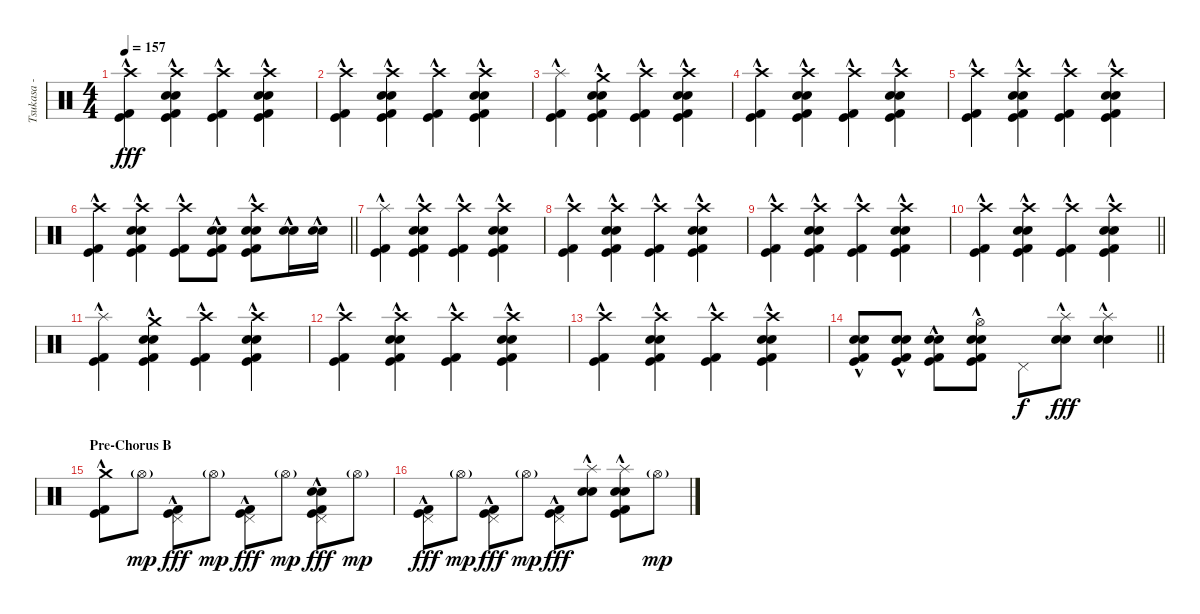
\track ("Tsukasa - Drums" "Tsukasa - ") {instrument percussion}
\staff {score}
\articulation defaults
\ts (4 4)
\tempo 157
\clef neutral
\ks c
("Crash high (hit)" "Kick (hit)"{hac} "Kick (hit) 2"{hac}).4{dy fff} ("Crash high (hit)" "Electric Snare (hit)"{hac} "Snare (hit) 2" "Kick (hit)"{hac} "Kick (hit) 2"{hac}).4 ("Crash high (hit)" "Kick (hit)"{hac} "Kick (hit) 2"{hac}).4 ("Crash high (hit)" "Electric Snare (hit)"{hac} "Snare (hit) 2" "Kick (hit)"{hac} "Kick (hit) 2"{hac}).4 |
("Crash high (hit)" "Kick (hit)"{hac} "Kick (hit) 2"{hac}).4 ("Crash high (hit)" "Electric Snare (hit)"{hac} "Snare (hit) 2" "Kick (hit)"{hac} "Kick (hit) 2"{hac}).4 ("Crash high (hit)" "Kick (hit)"{hac} "Kick (hit) 2"{hac}).4 ("Crash high (hit)" "Electric Snare (hit)"{hac} "Snare (hit) 2" "Kick (hit)"{hac} "Kick (hit) 2"{hac}).4 |
("Splash (hit)"{hac} "Kick (hit)"{hac} "Kick (hit) 2"{hac}).4 ("Crash medium (hit)" "Electric Snare (hit)"{hac} "Snare (hit) 2" "Kick (hit)"{hac} "Kick (hit) 2"{hac}).4 ("Crash high (hit)" "Kick (hit)"{hac} "Kick (hit) 2"{hac}).4 ("Crash high (hit)" "Electric Snare (hit)"{hac} "Snare (hit) 2" "Kick (hit)"{hac} "Kick (hit) 2"{hac}).4 |
("Crash high (hit)" "Kick (hit)"{hac} "Kick (hit) 2"{hac}).4 ("Crash high (hit)" "Electric Snare (hit)"{hac} "Snare (hit) 2" "Kick (hit)"{hac} "Kick (hit) 2"{hac}).4 ("Crash high (hit)" "Kick (hit)"{hac} "Kick (hit) 2"{hac}).4 ("Crash high (hit)" "Electric Snare (hit)"{hac} "Snare (hit) 2" "Kick (hit)"{hac} "Kick (hit) 2"{hac}).4 |
("Crash high (hit)" "Kick (hit)"{hac} "Kick (hit) 2"{hac}).4 ("Crash high (hit)" "Electric Snare (hit)"{hac} "Snare (hit) 2" "Kick (hit)"{hac} "Kick (hit) 2"{hac}).4 ("Crash high (hit)" "Kick (hit)"{hac} "Kick (hit) 2"{hac}).4 ("Crash high (hit)" "Electric Snare (hit)"{hac} "Snare (hit) 2" "Kick (hit)"{hac} "Kick (hit) 2"{hac}).4 |
\barLineRight lightlight
("Crash high (hit)" "Kick (hit)"{hac} "Kick (hit) 2"{hac}).4 ("Crash high (hit)" "Electric Snare (hit)"{hac} "Snare (hit) 2" "Kick (hit)"{hac} "Kick (hit) 2"{hac}).4 ("Crash high (hit)" "Kick (hit)"{hac} "Kick (hit) 2"{hac}).8 ("Electric Snare (hit)"{hac} "Snare (hit) 2"{hac} "Kick (hit)"{hac} "Kick (hit) 2"{hac}).8 ("Crash high (hit)" "Electric Snare (hit)"{hac} "Snare (hit) 2"{hac} "Kick (hit)"{hac} "Kick (hit) 2"{hac}).8 ("Electric Snare (hit)"{hac} "Snare (hit) 2"{hac}).16 ("Electric Snare (hit)"{hac} "Snare (hit) 2"{hac}).16 |
\section ("" "")
("Splash (hit)"{hac} "Kick (hit)"{hac} "Kick (hit) 2"{hac}).4 ("Crash high (hit)" "Electric Snare (hit)"{hac} "Snare (hit) 2" "Kick (hit)"{hac} "Kick (hit) 2"{hac}).4 ("Crash high (hit)" "Kick (hit)"{hac} "Kick (hit) 2"{hac}).4 ("Crash high (hit)" "Electric Snare (hit)"{hac} "Snare (hit) 2" "Kick (hit)"{hac} "Kick (hit) 2"{hac}).4 |
("Crash high (hit)" "Kick (hit)"{hac} "Kick (hit) 2"{hac}).4 ("Crash high (hit)" "Electric Snare (hit)"{hac} "Snare (hit) 2" "Kick (hit)"{hac} "Kick (hit) 2"{hac}).4 ("Crash high (hit)" "Kick (hit)"{hac} "Kick (hit) 2"{hac}).4 ("Crash high (hit)" "Electric Snare (hit)"{hac} "Snare (hit) 2" "Kick (hit)"{hac} "Kick (hit) 2"{hac}).4 |
("Crash high (hit)" "Kick (hit)"{hac} "Kick (hit) 2"{hac}).4 ("Crash high (hit)" "Electric Snare (hit)"{hac} "Snare (hit) 2" "Kick (hit)"{hac} "Kick (hit) 2"{hac}).4 ("Crash high (hit)" "Kick (hit)"{hac} "Kick (hit) 2"{hac}).4 ("Crash high (hit)" "Electric Snare (hit)"{hac} "Snare (hit) 2" "Kick (hit)"{hac} "Kick (hit) 2"{hac}).4 |
\barLineRight lightlight
("Crash high (hit)" "Kick (hit)"{hac} "Kick (hit) 2"{hac}).4 ("Crash high (hit)" "Electric Snare (hit)"{hac} "Snare (hit) 2" "Kick (hit)"{hac} "Kick (hit) 2"{hac}).4 ("Crash high (hit)" "Kick (hit)"{hac} "Kick (hit) 2"{hac}).4 ("Crash high (hit)" "Electric Snare (hit)"{hac} "Snare (hit) 2" "Kick (hit)"{hac} "Kick (hit) 2"{hac}).4 |
("Splash (hit)"{hac} "Kick (hit)"{hac} "Kick (hit) 2"{hac}).4 ("Crash medium (hit)" "Electric Snare (hit)"{hac} "Snare (hit) 2" "Kick (hit)"{hac} "Kick (hit) 2"{hac}).4 ("Crash high (hit)" "Kick (hit)"{hac} "Kick (hit) 2"{hac}).4 ("Crash high (hit)" "Electric Snare (hit)"{hac} "Snare (hit) 2" "Kick (hit)"{hac} "Kick (hit) 2"{hac}).4 |
("Crash high (hit)" "Kick (hit)"{hac} "Kick (hit) 2"{hac}).4 ("Crash high (hit)" "Electric Snare (hit)"{hac} "Snare (hit) 2" "Kick (hit)"{hac} "Kick (hit) 2"{hac}).4 ("Crash high (hit)" "Kick (hit)"{hac} "Kick (hit) 2"{hac}).4 ("Crash high (hit)" "Electric Snare (hit)"{hac} "Snare (hit) 2" "Kick (hit)"{hac} "Kick (hit) 2"{hac}).4 |
("Crash high (hit)" "Kick (hit)"{hac} "Kick (hit) 2"{hac}).4 ("Crash high (hit)" "Electric Snare (hit)"{hac} "Snare (hit) 2" "Kick (hit)"{hac} "Kick (hit) 2"{hac}).4 ("Crash high (hit)" "Kick (hit)"{hac} "Kick (hit) 2"{hac}).4 ("Crash high (hit)" "Electric Snare (hit)"{hac} "Snare (hit) 2" "Kick (hit)"{hac} "Kick (hit) 2"{hac}).4 |
\barLineRight lightlight
("Electric Snare (hit)"{hac} "Snare (hit) 2"{hac} "Kick (hit)"{hac} "Kick (hit) 2"{hac}).8 ("Electric Snare (hit)"{hac} "Snare (hit) 2"{hac} "Kick (hit)"{hac} "Kick (hit) 2"{hac}).8 ("Electric Snare (hit)"{hac} "Snare (hit) 2"{hac} "Kick (hit)"{hac} "Kick (hit) 2"{hac}).8 ("Hi-Hat (open)" "Electric Snare (hit)"{hac} "Snare (hit) 2"{hac} "Kick (hit)"{hac} "Kick (hit) 2"{hac}).8 "Pedal Hi-Hat (hit)".8{dy f} ("Splash (hit)"{hac} "Electric Snare (hit)"{hac} "Snare (hit) 2"{hac}).8{dy fff} ("Splash (hit)"{hac} "Electric Snare (hit)"{hac} "Snare (hit) 2"{hac}).4 |
\section ("" "Pre-Chorus B")
("Crash medium (hit)" "Kick (hit)"{hac} "Kick (hit) 2"{hac}).8 "Hi-Hat (open)"{g}.8{dy mp} ("Pedal Hi-Hat (hit)" "Kick (hit)"{hac} "Kick (hit) 2"{hac}).8{dy fff} "Hi-Hat (open)"{g}.8{dy mp} ("Pedal Hi-Hat (hit)" "Kick (hit)"{hac} "Kick (hit) 2"{hac}).8{dy fff} "Hi-Hat (open)"{g}.8{dy mp} ("Pedal Hi-Hat (hit)" "Electric Snare (hit)"{hac} "Snare (hit) 2"{hac} "Kick (hit)"{hac} "Kick (hit) 2"{hac}).8{dy fff} "Hi-Hat (open)"{g}.8{dy mp} |
("Pedal Hi-Hat (hit)" "Kick (hit)"{hac} "Kick (hit) 2"{hac}).8{dy fff} "Hi-Hat (open)"{g}.8{dy mp} ("Pedal Hi-Hat (hit)" "Kick (hit)"{hac} "Kick (hit) 2"{hac}).8{dy fff} "Hi-Hat (open)"{g}.8{dy mp} ("Pedal Hi-Hat (hit)" "Kick (hit)"{hac} "Kick (hit) 2"{hac}).8{dy fff} ("Splash (hit)"{hac} "Electric Snare (hit)"{hac} "Snare (hit) 2"{hac}).8 ("Splash (hit)"{hac} "Electric Snare (hit)"{hac} "Snare (hit) 2"{hac} "Kick (hit)"{hac} "Kick (hit) 2"{hac}).8 "Hi-Hat (open)"{g}.8{dy mp}
